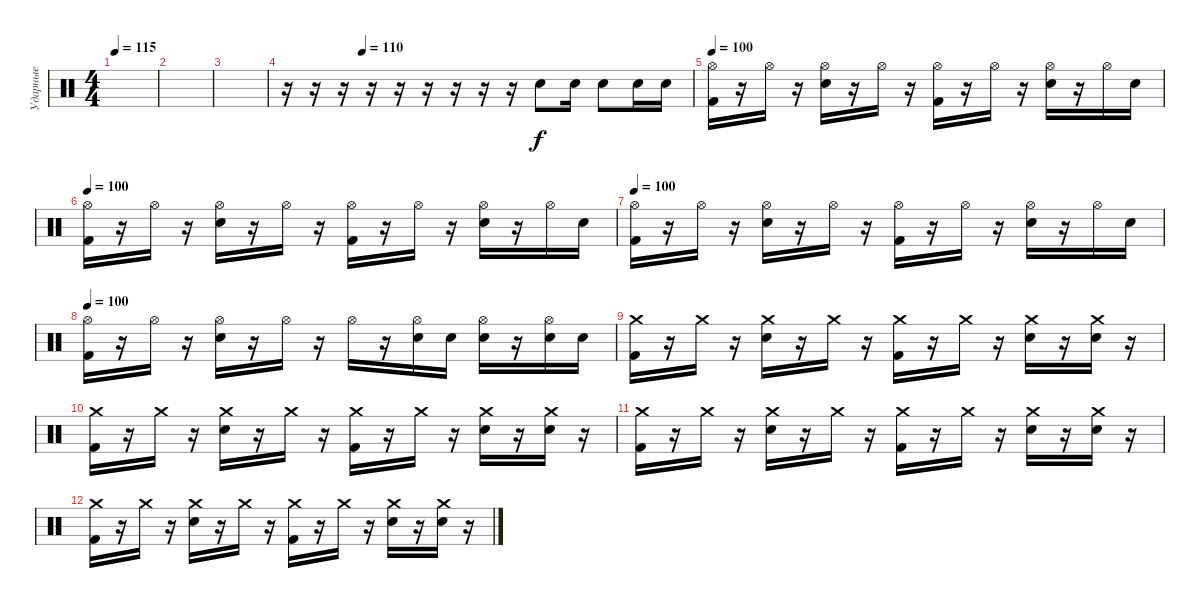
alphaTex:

\track ("Ударные" "Ударные") {instrument percussion}
\staff {score}
\articulation defaults
\ts (4 4)
\tempo 115
\clef neutral
\ks c
|
|
|
\tempo (110 0.1875)
r.16 r.16 r.16 r.16 r.16 r.16 r.16 r.16 r.16 "Electric Snare (hit)".8 "Electric Snare (hit)".16 "Electric Snare (hit)".8 "Electric Snare (hit)".16 "Electric Snare (hit)".16 |
\tempo 100
("Hi-Hat (open)" "Kick (hit) 2").16 r.16 "Hi-Hat (open)".16 r.16 ("Hi-Hat (open)" "Electric Snare (hit)").16 r.16 "Hi-Hat (open)".16 r.16 ("Hi-Hat (open)" "Kick (hit) 2").16 r.16 "Hi-Hat (open)".16 r.16 ("Hi-Hat (open)" "Electric Snare (hit)").16 r.16 "Hi-Hat (open)".16 "Electric Snare (hit)".16 |
\tempo 100
("Hi-Hat (open)" "Kick (hit) 2").16 r.16 "Hi-Hat (open)".16 r.16 ("Hi-Hat (open)" "Electric Snare (hit)").16 r.16 "Hi-Hat (open)".16 r.16 ("Hi-Hat (open)" "Kick (hit) 2").16 r.16 "Hi-Hat (open)".16 r.16 ("Hi-Hat (open)" "Electric Snare (hit)").16 r.16 "Hi-Hat (open)".16 "Electric Snare (hit)".16 |
\tempo 100
("Hi-Hat (open)" "Kick (hit) 2").16 r.16 "Hi-Hat (open)".16 r.16 ("Hi-Hat (open)" "Electric Snare (hit)").16 r.16 "Hi-Hat (open)".16 r.16 ("Hi-Hat (open)" "Kick (hit) 2").16 r.16 "Hi-Hat (open)".16 r.16 ("Hi-Hat (open)" "Electric Snare (hit)").16 r.16 "Hi-Hat (open)".16 "Electric Snare (hit)".16 |
\tempo 100
("Hi-Hat (open)" "Kick (hit) 2").16 r.16 "Hi-Hat (open)".16 r.16 ("Hi-Hat (open)" "Electric Snare (hit)").16 r.16 "Hi-Hat (open)".16 r.16 "Hi-Hat (open)".16 r.16 ("Hi-Hat (open)" "Electric Snare (hit)").16 "Electric Snare (hit)".16 ("Hi-Hat (open)" "Electric Snare (hit)").16 r.16 ("Hi-Hat (open)" "Electric Snare (hit)").16 "Electric Snare (hit)".16 |
("Crash medium (hit)" "Kick (hit) 2").16 r.16 "Crash medium (hit)".16 r.16 ("Crash medium (hit)" "Electric Snare (hit)").16 r.16 "Crash medium (hit)".16 r.16 ("Crash medium (hit)" "Kick (hit) 2").16 r.16 "Crash medium (hit)".16 r.16 ("Crash medium (hit)" "Electric Snare (hit)").16 r.16 ("Crash medium (hit)" "Electric Snare (hit)").16 r.16 |
("Crash medium (hit)" "Kick (hit) 2").16 r.16 "Crash medium (hit)".16 r.16 ("Crash medium (hit)" "Electric Snare (hit)").16 r.16 "Crash medium (hit)".16 r.16 ("Crash medium (hit)" "Kick (hit) 2").16 r.16 "Crash medium (hit)".16 r.16 ("Crash medium (hit)" "Electric Snare (hit)").16 r.16 ("Crash medium (hit)" "Electric Snare (hit)").16 r.16 |
("Crash medium (hit)" "Kick (hit) 2").16 r.16 "Crash medium (hit)".16 r.16 ("Crash medium (hit)" "Electric Snare (hit)").16 r.16 "Crash medium (hit)".16 r.16 ("Crash medium (hit)" "Kick (hit) 2").16 r.16 "Crash medium (hit)".16 r.16 ("Crash medium (hit)" "Electric Snare (hit)").16 r.16 ("Crash medium (hit)" "Electric Snare (hit)").16 r.16 |
("Crash medium (hit)" "Kick (hit) 2").16 r.16 "Crash medium (hit)".16 r.16 ("Crash medium (hit)" "Electric Snare (hit)").16 r.16 "Crash medium (hit)".16 r.16 ("Crash medium (hit)" "Kick (hit) 2").16 r.16 "Crash medium (hit)".16 r.16 ("Crash medium (hit)" "Electric Snare (hit)").16 r.16 ("Crash medium (hit)" "Electric Snare (hit)").16 r.16
